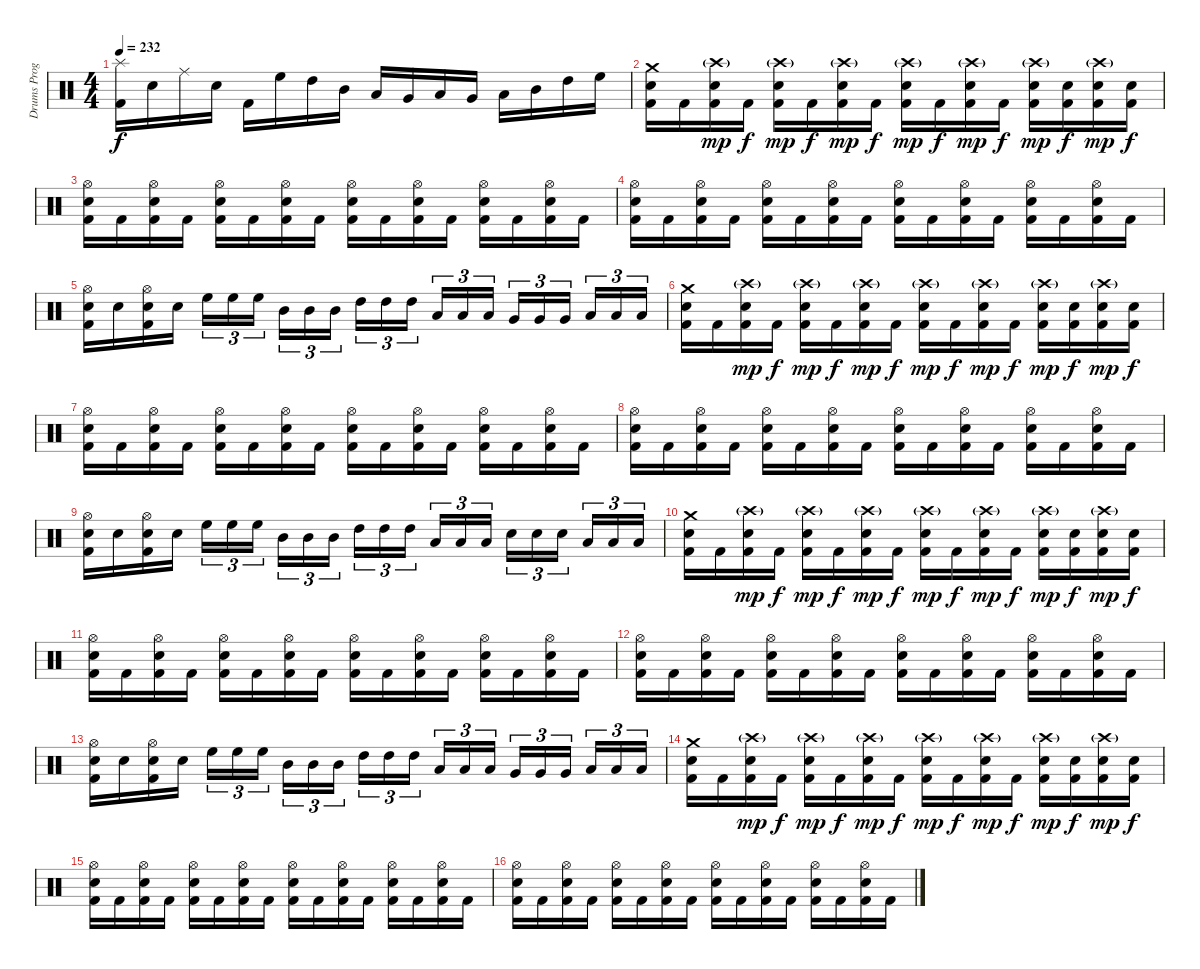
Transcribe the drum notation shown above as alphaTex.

\track ("Drums Programming" "Drums Prog") {instrument percussion}
\staff {score}
\articulation defaults
\ts (4 4)
\tempo 232
\clef neutral
\ks c
("Splash (hit)" "Kick (hit) 2").16{dy f} "Electric Snare (hit)".16 "Ride (middle)".16 "Electric Snare (hit)".16 "Kick (hit) 2".16 "High Floor Tom (hit)".16 "High Tom (hit)".16 "Mid Tom (hit)".16 "Low Tom (hit)".16 "Very Low Tom (hit)".16 "Low Floor Tom (hit)".16 "Very Low Tom (hit)".16 "Low Tom (hit)".16 "Mid Tom (hit)".16 "High Tom (hit)".16 "High Floor Tom (hit)".16 |
("Crash medium (hit)" "Electric Snare (hit)" "Kick (hit) 2").16 "Kick (hit) 2".16 ("Crash high (hit)"{g} "Electric Snare (hit)" "Kick (hit) 2").16{dy mp} "Kick (hit) 2".16{dy f} ("Crash high (hit)"{g} "Electric Snare (hit)" "Kick (hit) 2").16{dy mp} "Kick (hit) 2".16{dy f} ("Crash high (hit)"{g} "Electric Snare (hit)" "Kick (hit) 2").16{dy mp} "Kick (hit) 2".16{dy f} ("Crash high (hit)"{g} "Electric Snare (hit)" "Kick (hit) 2").16{dy mp} "Kick (hit) 2".16{dy f} ("Crash high (hit)"{g} "Electric Snare (hit)" "Kick (hit) 2").16{dy mp} "Kick (hit) 2".16{dy f} ("Crash high (hit)"{g} "Electric Snare (hit)" "Kick (hit) 2").16{dy mp} ("Electric Snare (hit)" "Kick (hit) 2").16{dy f} ("Crash high (hit)"{g} "Electric Snare (hit)" "Kick (hit) 2").16{dy mp} ("Electric Snare (hit)" "Kick (hit) 2").16{dy f} |
("Hi-Hat (open)" "Electric Snare (hit)" "Kick (hit) 2").16 "Kick (hit) 2".16 ("Hi-Hat (open)" "Electric Snare (hit)" "Kick (hit) 2").16 "Kick (hit) 2".16 ("Hi-Hat (open)" "Electric Snare (hit)" "Kick (hit) 2").16 "Kick (hit) 2".16 ("Hi-Hat (open)" "Electric Snare (hit)" "Kick (hit) 2").16 "Kick (hit) 2".16 ("Hi-Hat (open)" "Electric Snare (hit)" "Kick (hit) 2").16 "Kick (hit) 2".16 ("Hi-Hat (open)" "Electric Snare (hit)" "Kick (hit) 2").16 "Kick (hit) 2".16 ("Hi-Hat (open)" "Electric Snare (hit)" "Kick (hit) 2").16 "Kick (hit) 2".16 ("Hi-Hat (open)" "Electric Snare (hit)" "Kick (hit) 2").16 "Kick (hit) 2".16 |
("Hi-Hat (open)" "Electric Snare (hit)" "Kick (hit) 2").16 "Kick (hit) 2".16 ("Hi-Hat (open)" "Electric Snare (hit)" "Kick (hit) 2").16 "Kick (hit) 2".16 ("Hi-Hat (open)" "Electric Snare (hit)" "Kick (hit) 2").16 "Kick (hit) 2".16 ("Hi-Hat (open)" "Electric Snare (hit)" "Kick (hit) 2").16 "Kick (hit) 2".16 ("Hi-Hat (open)" "Electric Snare (hit)" "Kick (hit) 2").16 "Kick (hit) 2".16 ("Hi-Hat (open)" "Electric Snare (hit)" "Kick (hit) 2").16 "Kick (hit) 2".16 ("Hi-Hat (open)" "Electric Snare (hit)" "Kick (hit) 2").16 "Kick (hit) 2".16 ("Hi-Hat (open)" "Electric Snare (hit)" "Kick (hit) 2").16 "Kick (hit) 2".16 |
("Hi-Hat (open)" "Electric Snare (hit)" "Kick (hit) 2").16 "Electric Snare (hit)".16 ("Hi-Hat (open)" "Electric Snare (hit)" "Kick (hit) 2").16 "Electric Snare (hit)".16 "High Floor Tom (hit)".16{tu (3 2)} "High Floor Tom (hit)".16{tu (3 2)} "High Floor Tom (hit)".16{tu (3 2)} "Mid Tom (hit)".16{tu (3 2)} "Mid Tom (hit)".16{tu (3 2)} "Mid Tom (hit)".16{tu (3 2)} "High Tom (hit)".16{tu (3 2)} "High Tom (hit)".16{tu (3 2)} "High Tom (hit)".16{tu (3 2)} "Low Tom (hit)".16{tu (3 2)} "Low Tom (hit)".16{tu (3 2)} "Low Tom (hit)".16{tu (3 2)} "Very Low Tom (hit)".16{tu (3 2)} "Very Low Tom (hit)".16{tu (3 2)} "Very Low Tom (hit)".16{tu (3 2)} "Low Floor Tom (hit)".16{tu (3 2)} "Low Floor Tom (hit)".16{tu (3 2)} "Low Floor Tom (hit)".16{tu (3 2)} |
("Crash medium (hit)" "Electric Snare (hit)" "Kick (hit) 2").16 "Kick (hit) 2".16 ("Crash high (hit)"{g} "Electric Snare (hit)" "Kick (hit) 2").16{dy mp} "Kick (hit) 2".16{dy f} ("Crash high (hit)"{g} "Electric Snare (hit)" "Kick (hit) 2").16{dy mp} "Kick (hit) 2".16{dy f} ("Crash high (hit)"{g} "Electric Snare (hit)" "Kick (hit) 2").16{dy mp} "Kick (hit) 2".16{dy f} ("Crash high (hit)"{g} "Electric Snare (hit)" "Kick (hit) 2").16{dy mp} "Kick (hit) 2".16{dy f} ("Crash high (hit)"{g} "Electric Snare (hit)" "Kick (hit) 2").16{dy mp} "Kick (hit) 2".16{dy f} ("Crash high (hit)"{g} "Electric Snare (hit)" "Kick (hit) 2").16{dy mp} ("Electric Snare (hit)" "Kick (hit) 2").16{dy f} ("Crash high (hit)"{g} "Electric Snare (hit)" "Kick (hit) 2").16{dy mp} ("Electric Snare (hit)" "Kick (hit) 2").16{dy f} |
("Hi-Hat (open)" "Electric Snare (hit)" "Kick (hit) 2").16 "Kick (hit) 2".16 ("Hi-Hat (open)" "Electric Snare (hit)" "Kick (hit) 2").16 "Kick (hit) 2".16 ("Hi-Hat (open)" "Electric Snare (hit)" "Kick (hit) 2").16 "Kick (hit) 2".16 ("Hi-Hat (open)" "Electric Snare (hit)" "Kick (hit) 2").16 "Kick (hit) 2".16 ("Hi-Hat (open)" "Electric Snare (hit)" "Kick (hit) 2").16 "Kick (hit) 2".16 ("Hi-Hat (open)" "Electric Snare (hit)" "Kick (hit) 2").16 "Kick (hit) 2".16 ("Hi-Hat (open)" "Electric Snare (hit)" "Kick (hit) 2").16 "Kick (hit) 2".16 ("Hi-Hat (open)" "Electric Snare (hit)" "Kick (hit) 2").16 "Kick (hit) 2".16 |
("Hi-Hat (open)" "Electric Snare (hit)" "Kick (hit) 2").16 "Kick (hit) 2".16 ("Hi-Hat (open)" "Electric Snare (hit)" "Kick (hit) 2").16 "Kick (hit) 2".16 ("Hi-Hat (open)" "Electric Snare (hit)" "Kick (hit) 2").16 "Kick (hit) 2".16 ("Hi-Hat (open)" "Electric Snare (hit)" "Kick (hit) 2").16 "Kick (hit) 2".16 ("Hi-Hat (open)" "Electric Snare (hit)" "Kick (hit) 2").16 "Kick (hit) 2".16 ("Hi-Hat (open)" "Electric Snare (hit)" "Kick (hit) 2").16 "Kick (hit) 2".16 ("Hi-Hat (open)" "Electric Snare (hit)" "Kick (hit) 2").16 "Kick (hit) 2".16 ("Hi-Hat (open)" "Electric Snare (hit)" "Kick (hit) 2").16 "Kick (hit) 2".16 |
("Hi-Hat (open)" "Electric Snare (hit)" "Kick (hit) 2").16 "Electric Snare (hit)".16 ("Hi-Hat (open)" "Electric Snare (hit)" "Kick (hit) 2").16 "Electric Snare (hit)".16 "High Floor Tom (hit)".16{tu (3 2)} "High Floor Tom (hit)".16{tu (3 2)} "High Floor Tom (hit)".16{tu (3 2)} "Mid Tom (hit)".16{tu (3 2)} "Mid Tom (hit)".16{tu (3 2)} "Mid Tom (hit)".16{tu (3 2)} "High Tom (hit)".16{tu (3 2)} "High Tom (hit)".16{tu (3 2)} "High Tom (hit)".16{tu (3 2)} "Low Tom (hit)".16{tu (3 2)} "Low Tom (hit)".16{tu (3 2)} "Low Tom (hit)".16{tu (3 2)} "Electric Snare (hit)".16{tu (3 2)} "Electric Snare (hit)".16{tu (3 2)} "Electric Snare (hit)".16{tu (3 2)} "Low Floor Tom (hit)".16{tu (3 2)} "Low Floor Tom (hit)".16{tu (3 2)} "Low Floor Tom (hit)".16{tu (3 2)} |
("Crash medium (hit)" "Electric Snare (hit)" "Kick (hit) 2").16 "Kick (hit) 2".16 ("Crash high (hit)"{g} "Electric Snare (hit)" "Kick (hit) 2").16{dy mp} "Kick (hit) 2".16{dy f} ("Crash high (hit)"{g} "Electric Snare (hit)" "Kick (hit) 2").16{dy mp} "Kick (hit) 2".16{dy f} ("Crash high (hit)"{g} "Electric Snare (hit)" "Kick (hit) 2").16{dy mp} "Kick (hit) 2".16{dy f} ("Crash high (hit)"{g} "Electric Snare (hit)" "Kick (hit) 2").16{dy mp} "Kick (hit) 2".16{dy f} ("Crash high (hit)"{g} "Electric Snare (hit)" "Kick (hit) 2").16{dy mp} "Kick (hit) 2".16{dy f} ("Crash high (hit)"{g} "Electric Snare (hit)" "Kick (hit) 2").16{dy mp} ("Electric Snare (hit)" "Kick (hit) 2").16{dy f} ("Crash high (hit)"{g} "Electric Snare (hit)" "Kick (hit) 2").16{dy mp} ("Electric Snare (hit)" "Kick (hit) 2").16{dy f} |
("Hi-Hat (open)" "Electric Snare (hit)" "Kick (hit) 2").16 "Kick (hit) 2".16 ("Hi-Hat (open)" "Electric Snare (hit)" "Kick (hit) 2").16 "Kick (hit) 2".16 ("Hi-Hat (open)" "Electric Snare (hit)" "Kick (hit) 2").16 "Kick (hit) 2".16 ("Hi-Hat (open)" "Electric Snare (hit)" "Kick (hit) 2").16 "Kick (hit) 2".16 ("Hi-Hat (open)" "Electric Snare (hit)" "Kick (hit) 2").16 "Kick (hit) 2".16 ("Hi-Hat (open)" "Electric Snare (hit)" "Kick (hit) 2").16 "Kick (hit) 2".16 ("Hi-Hat (open)" "Electric Snare (hit)" "Kick (hit) 2").16 "Kick (hit) 2".16 ("Hi-Hat (open)" "Electric Snare (hit)" "Kick (hit) 2").16 "Kick (hit) 2".16 |
("Hi-Hat (open)" "Electric Snare (hit)" "Kick (hit) 2").16 "Kick (hit) 2".16 ("Hi-Hat (open)" "Electric Snare (hit)" "Kick (hit) 2").16 "Kick (hit) 2".16 ("Hi-Hat (open)" "Electric Snare (hit)" "Kick (hit) 2").16 "Kick (hit) 2".16 ("Hi-Hat (open)" "Electric Snare (hit)" "Kick (hit) 2").16 "Kick (hit) 2".16 ("Hi-Hat (open)" "Electric Snare (hit)" "Kick (hit) 2").16 "Kick (hit) 2".16 ("Hi-Hat (open)" "Electric Snare (hit)" "Kick (hit) 2").16 "Kick (hit) 2".16 ("Hi-Hat (open)" "Electric Snare (hit)" "Kick (hit) 2").16 "Kick (hit) 2".16 ("Hi-Hat (open)" "Electric Snare (hit)" "Kick (hit) 2").16 "Kick (hit) 2".16 |
("Hi-Hat (open)" "Electric Snare (hit)" "Kick (hit) 2").16 "Electric Snare (hit)".16 ("Hi-Hat (open)" "Electric Snare (hit)" "Kick (hit) 2").16 "Electric Snare (hit)".16 "High Floor Tom (hit)".16{tu (3 2)} "High Floor Tom (hit)".16{tu (3 2)} "High Floor Tom (hit)".16{tu (3 2)} "Mid Tom (hit)".16{tu (3 2)} "Mid Tom (hit)".16{tu (3 2)} "Mid Tom (hit)".16{tu (3 2)} "High Tom (hit)".16{tu (3 2)} "High Tom (hit)".16{tu (3 2)} "High Tom (hit)".16{tu (3 2)} "Low Tom (hit)".16{tu (3 2)} "Low Tom (hit)".16{tu (3 2)} "Low Tom (hit)".16{tu (3 2)} "Very Low Tom (hit)".16{tu (3 2)} "Very Low Tom (hit)".16{tu (3 2)} "Very Low Tom (hit)".16{tu (3 2)} "Low Floor Tom (hit)".16{tu (3 2)} "Low Floor Tom (hit)".16{tu (3 2)} "Low Floor Tom (hit)".16{tu (3 2)} |
("Crash medium (hit)" "Electric Snare (hit)" "Kick (hit) 2").16 "Kick (hit) 2".16 ("Crash high (hit)"{g} "Electric Snare (hit)" "Kick (hit) 2").16{dy mp} "Kick (hit) 2".16{dy f} ("Crash high (hit)"{g} "Electric Snare (hit)" "Kick (hit) 2").16{dy mp} "Kick (hit) 2".16{dy f} ("Crash high (hit)"{g} "Electric Snare (hit)" "Kick (hit) 2").16{dy mp} "Kick (hit) 2".16{dy f} ("Crash high (hit)"{g} "Electric Snare (hit)" "Kick (hit) 2").16{dy mp} "Kick (hit) 2".16{dy f} ("Crash high (hit)"{g} "Electric Snare (hit)" "Kick (hit) 2").16{dy mp} "Kick (hit) 2".16{dy f} ("Crash high (hit)"{g} "Electric Snare (hit)" "Kick (hit) 2").16{dy mp} ("Electric Snare (hit)" "Kick (hit) 2").16{dy f} ("Crash high (hit)"{g} "Electric Snare (hit)" "Kick (hit) 2").16{dy mp} ("Electric Snare (hit)" "Kick (hit) 2").16{dy f} |
("Hi-Hat (open)" "Electric Snare (hit)" "Kick (hit) 2").16 "Kick (hit) 2".16 ("Hi-Hat (open)" "Electric Snare (hit)" "Kick (hit) 2").16 "Kick (hit) 2".16 ("Hi-Hat (open)" "Electric Snare (hit)" "Kick (hit) 2").16 "Kick (hit) 2".16 ("Hi-Hat (open)" "Electric Snare (hit)" "Kick (hit) 2").16 "Kick (hit) 2".16 ("Hi-Hat (open)" "Electric Snare (hit)" "Kick (hit) 2").16 "Kick (hit) 2".16 ("Hi-Hat (open)" "Electric Snare (hit)" "Kick (hit) 2").16 "Kick (hit) 2".16 ("Hi-Hat (open)" "Electric Snare (hit)" "Kick (hit) 2").16 "Kick (hit) 2".16 ("Hi-Hat (open)" "Electric Snare (hit)" "Kick (hit) 2").16 "Kick (hit) 2".16 |
("Hi-Hat (open)" "Electric Snare (hit)" "Kick (hit) 2").16 "Kick (hit) 2".16 ("Hi-Hat (open)" "Electric Snare (hit)" "Kick (hit) 2").16 "Kick (hit) 2".16 ("Hi-Hat (open)" "Electric Snare (hit)" "Kick (hit) 2").16 "Kick (hit) 2".16 ("Hi-Hat (open)" "Electric Snare (hit)" "Kick (hit) 2").16 "Kick (hit) 2".16 ("Hi-Hat (open)" "Electric Snare (hit)" "Kick (hit) 2").16 "Kick (hit) 2".16 ("Hi-Hat (open)" "Electric Snare (hit)" "Kick (hit) 2").16 "Kick (hit) 2".16 ("Hi-Hat (open)" "Electric Snare (hit)" "Kick (hit) 2").16 "Kick (hit) 2".16 ("Hi-Hat (open)" "Electric Snare (hit)" "Kick (hit) 2").16 "Kick (hit) 2".16
